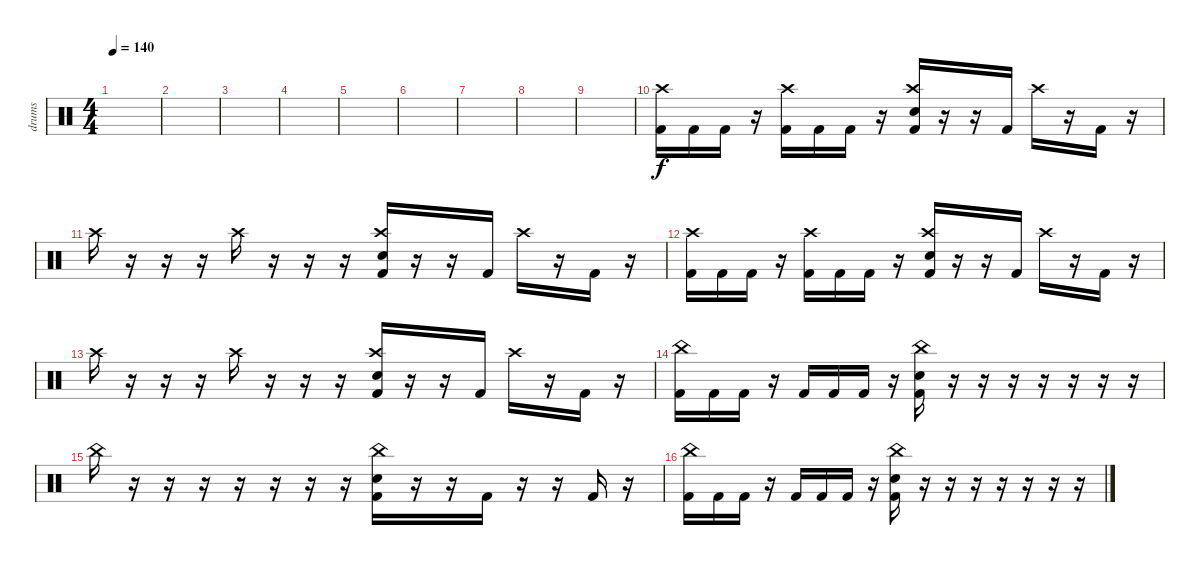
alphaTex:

\track ("drums" "drums") {instrument percussion}
\staff {score}
\articulation defaults
\ts (4 4)
\tempo 140
\clef neutral
\ks c
|
|
|
|
|
|
|
|
|
("Kick (hit) 2" "Crash high (hit)").16 "Kick (hit) 2".16 "Kick (hit) 2".16 r.16 ("Kick (hit) 2" "Crash high (hit)").16 "Kick (hit) 2".16 "Kick (hit) 2".16 r.16 ("Kick (hit) 2" "Crash high (hit)" "Electric Snare (hit)").16 r.16 r.16 "Kick (hit) 2".16 "Crash high (hit)".16 r.16 "Kick (hit) 2".16 r.16 |
"Crash high (hit)".16 r.16 r.16 r.16 "Crash high (hit)".16 r.16 r.16 r.16 ("Crash high (hit)" "Electric Snare (hit)" "Kick (hit) 2").16 r.16 r.16 "Kick (hit) 2".16 "Crash high (hit)".16 r.16 "Kick (hit) 2".16 r.16 |
("Kick (hit) 2" "Crash high (hit)").16 "Kick (hit) 2".16 "Kick (hit) 2".16 r.16 ("Kick (hit) 2" "Crash high (hit)").16 "Kick (hit) 2".16 "Kick (hit) 2".16 r.16 ("Kick (hit) 2" "Crash high (hit)" "Electric Snare (hit)").16 r.16 r.16 "Kick (hit) 2".16 "Crash high (hit)".16 r.16 "Kick (hit) 2".16 r.16 |
"Crash high (hit)".16 r.16 r.16 r.16 "Crash high (hit)".16 r.16 r.16 r.16 ("Crash high (hit)" "Electric Snare (hit)" "Kick (hit) 2").16 r.16 r.16 "Kick (hit) 2".16 "Crash high (hit)".16 r.16 "Kick (hit) 2".16 r.16 |
("Kick (hit) 2" "China (hit)").16 "Kick (hit) 2".16 "Kick (hit) 2".16 r.16 "Kick (hit) 2".16 "Kick (hit) 2".16 "Kick (hit) 2".16 r.16 ("Kick (hit) 2" "China (hit)" "Electric Snare (hit)").16 r.16 r.16 r.16 r.16 r.16 r.16 r.16 |
"China (hit)".16 r.16 r.16 r.16 r.16 r.16 r.16 r.16 ("China (hit)" "Electric Snare (hit)" "Kick (hit) 2").16 r.16 r.16 "Kick (hit) 2".16 r.16 r.16 "Kick (hit) 2".16 r.16 |
("Kick (hit) 2" "China (hit)").16 "Kick (hit) 2".16 "Kick (hit) 2".16 r.16 "Kick (hit) 2".16 "Kick (hit) 2".16 "Kick (hit) 2".16 r.16 ("Kick (hit) 2" "China (hit)" "Electric Snare (hit)").16 r.16 r.16 r.16 r.16 r.16 r.16 r.16
